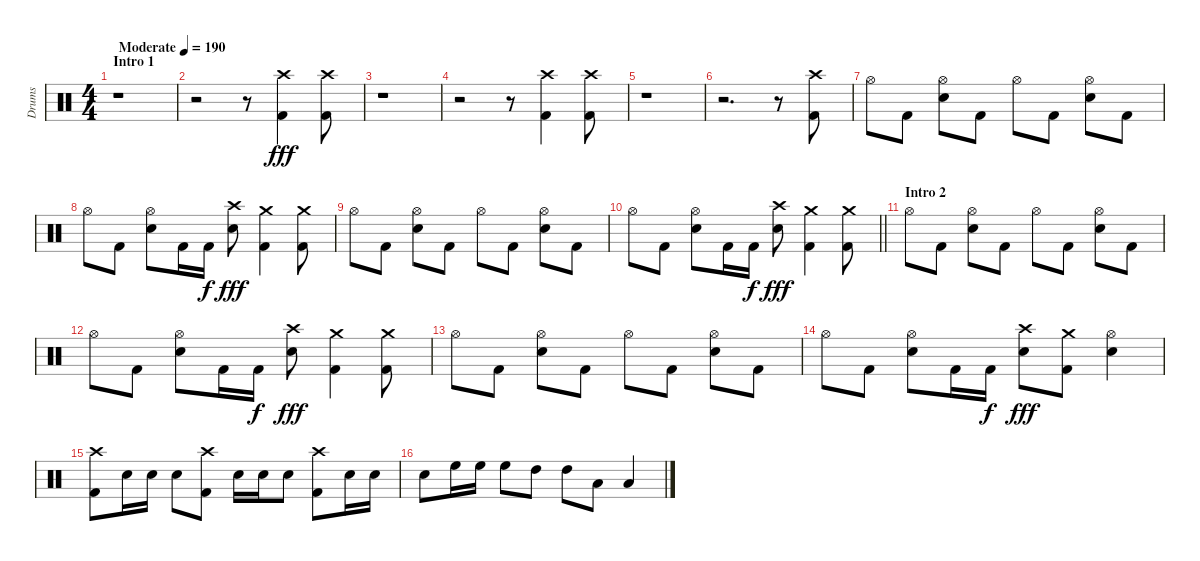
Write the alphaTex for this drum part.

\track ("Drums" "Drums") {instrument percussion}
\staff {score}
\articulation defaults
\ts (4 4)
\section ("" "Intro 1")
\tempo (190 "Moderate")
\clef neutral
\ks c
r.1{dy fff} |
r.2 r.8 ("Kick (hit) 2" "Crash high (hit)").4 ("Kick (hit) 2" "Crash high (hit)").8 |
r.1 |
r.2 r.8 ("Kick (hit) 2" "Crash high (hit)").4 ("Kick (hit) 2" "Crash high (hit)").8 |
r.1 |
r.2{d} r.8 ("Kick (hit) 2" "Crash high (hit)").8 |
"Hi-Hat (open)".8 "Kick (hit) 2".8 ("Electric Snare (hit)" "Hi-Hat (open)").8 "Kick (hit) 2".8 "Hi-Hat (open)".8 "Kick (hit) 2".8 ("Electric Snare (hit)" "Hi-Hat (open)").8 "Kick (hit) 2".8 |
"Hi-Hat (open)".8 "Kick (hit) 2".8 ("Electric Snare (hit)" "Hi-Hat (open)").8 "Kick (hit) 2".16 "Kick (hit) 2".16{dy f} ("Electric Snare (hit)" "Crash high (hit)").8{dy fff} ("Kick (hit) 2" "Crash medium (hit)").4 ("Kick (hit) 2" "Crash medium (hit)").8 |
"Hi-Hat (open)".8 "Kick (hit) 2".8 ("Electric Snare (hit)" "Hi-Hat (open)").8 "Kick (hit) 2".8 "Hi-Hat (open)".8 "Kick (hit) 2".8 ("Electric Snare (hit)" "Hi-Hat (open)").8 "Kick (hit) 2".8 |
\barLineRight lightlight "Hi-Hat (open)".8 "Kick (hit) 2".8
("Electric Snare (hit)" "Hi-Hat (open)").8 "Kick (hit) 2".16 "Kick (hit) 2".16{dy f} ("Electric Snare (hit)" "Crash high (hit)").8{dy fff} ("Kick (hit) 2" "Crash medium (hit)").4 ("Kick (hit) 2" "Crash medium (hit)").8 |
\section ("" "Intro 2")
"Hi-Hat (open)".8 "Kick (hit) 2".8 ("Electric Snare (hit)" "Hi-Hat (open)").8 "Kick (hit) 2".8 "Hi-Hat (open)".8 "Kick (hit) 2".8 ("Electric Snare (hit)" "Hi-Hat (open)").8 "Kick (hit) 2".8 |
"Hi-Hat (open)".8 "Kick (hit) 2".8 ("Electric Snare (hit)" "Hi-Hat (open)").8 "Kick (hit) 2".16 "Kick (hit) 2".16{dy f} ("Electric Snare (hit)" "Crash high (hit)").8{dy fff} ("Kick (hit) 2" "Crash medium (hit)").4 ("Kick (hit) 2" "Crash medium (hit)").8 |
"Hi-Hat (open)".8 "Kick (hit) 2".8 ("Electric Snare (hit)" "Hi-Hat (open)").8 "Kick (hit) 2".8 "Hi-Hat (open)".8 "Kick (hit) 2".8 ("Electric Snare (hit)" "Hi-Hat (open)").8 "Kick (hit) 2".8 |
"Hi-Hat (open)".8 "Kick (hit) 2".8 ("Electric Snare (hit)" "Hi-Hat (open)").8 "Kick (hit) 2".16 "Kick (hit) 2".16{dy f} ("Electric Snare (hit)" "Crash high (hit)").8{dy fff} ("Kick (hit) 2" "Crash medium (hit)").8 ("Electric Snare (hit)" "Hi-Hat (open)").4 |
("Kick (hit) 2" "Crash high (hit)").8 "Electric Snare (hit)".16 "Electric Snare (hit)".16 "Electric Snare (hit)".8 ("Kick (hit) 2" "Crash high (hit)").8 "Electric Snare (hit)".16 "Electric Snare (hit)".16 "Electric Snare (hit)".8 ("Kick (hit) 2" "Crash high (hit)").8 "Electric Snare (hit)".16 "Electric Snare (hit)".16 |
"Electric Snare (hit)".8 "High Floor Tom (hit)".16 "High Floor Tom (hit)".16 "High Floor Tom (hit)".8 "High Tom (hit)".8 "High Tom (hit)".8 "Low Tom (hit)".8 "Low Tom (hit)".4
